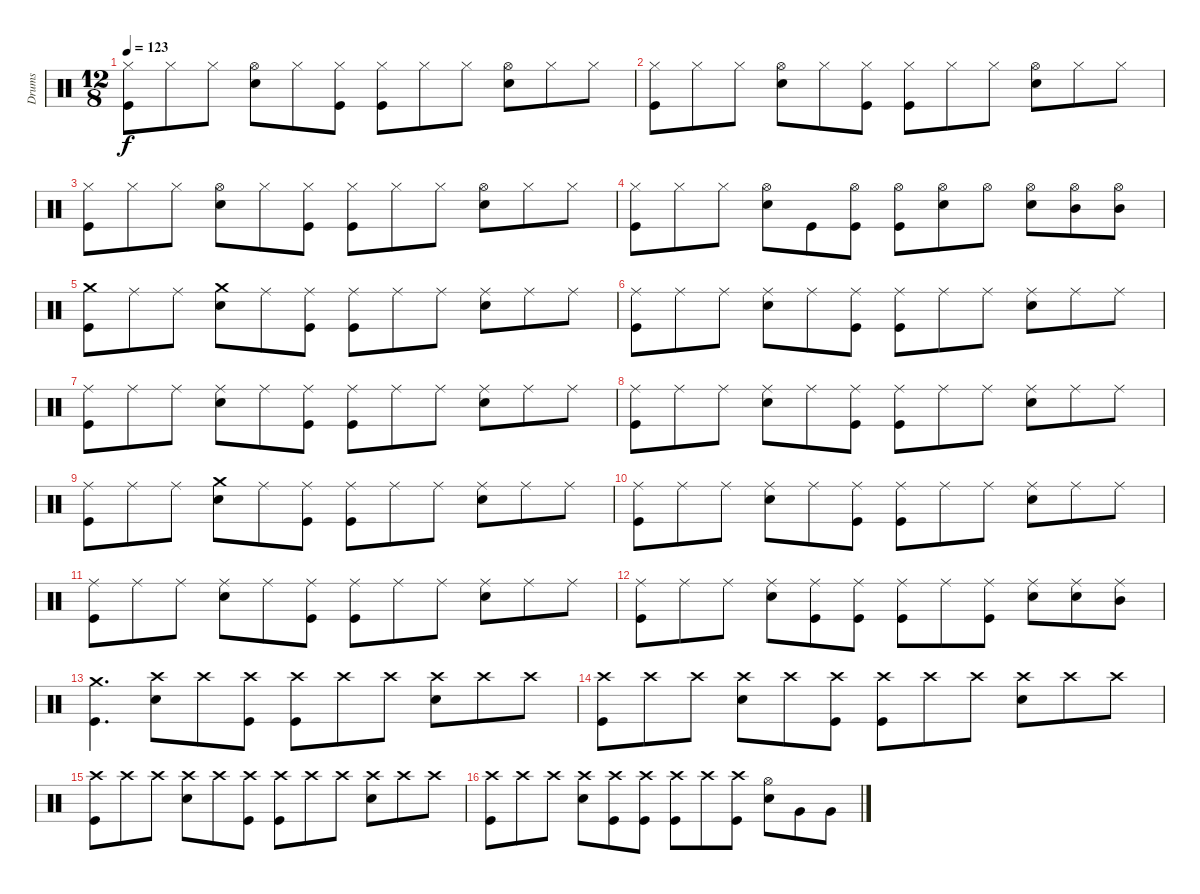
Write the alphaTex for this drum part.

\track ("Drums" "Drums") {instrument percussion}
\staff {score}
\articulation defaults
\ts (12 8)
\tempo 123
\clef neutral
\ks c
("Hi-Hat (closed)" "Kick (hit)").8{dy f} "Hi-Hat (closed)".8 "Hi-Hat (closed)".8 ("Hi-Hat (open)" "Snare (hit) 2").8 "Hi-Hat (closed)".8 ("Hi-Hat (closed)" "Kick (hit)").8 ("Hi-Hat (closed)" "Kick (hit)").8 "Hi-Hat (closed)".8 "Hi-Hat (closed)".8 ("Hi-Hat (open)" "Snare (hit) 2").8 "Hi-Hat (closed)".8 "Hi-Hat (closed)".8 |
("Hi-Hat (closed)" "Kick (hit)").8 "Hi-Hat (closed)".8 "Hi-Hat (closed)".8 ("Hi-Hat (open)" "Snare (hit) 2").8 "Hi-Hat (closed)".8 ("Hi-Hat (closed)" "Kick (hit)").8 ("Hi-Hat (closed)" "Kick (hit)").8 "Hi-Hat (closed)".8 "Hi-Hat (closed)".8 ("Hi-Hat (open)" "Snare (hit) 2").8 "Hi-Hat (closed)".8 "Hi-Hat (closed)".8 |
("Hi-Hat (closed)" "Kick (hit)").8 "Hi-Hat (closed)".8 "Hi-Hat (closed)".8 ("Hi-Hat (open)" "Snare (hit) 2").8 "Hi-Hat (closed)".8 ("Hi-Hat (closed)" "Kick (hit)").8 ("Hi-Hat (closed)" "Kick (hit)").8 "Hi-Hat (closed)".8 "Hi-Hat (closed)".8 ("Hi-Hat (open)" "Snare (hit) 2").8 "Hi-Hat (closed)".8 "Hi-Hat (closed)".8 |
("Hi-Hat (closed)" "Kick (hit)").8 "Hi-Hat (closed)".8 "Hi-Hat (closed)".8 ("Hi-Hat (open)" "Snare (hit) 2").8 "Kick (hit)".8 ("Hi-Hat (open)" "Kick (hit)").8 ("Hi-Hat (open)" "Kick (hit)").8 ("Hi-Hat (open)" "Snare (hit) 2").8 "Hi-Hat (open)".8 ("Hi-Hat (open)" "Snare (hit) 2").8 ("Hi-Hat (open)" "Mid Tom (hit)").8 ("Hi-Hat (open)" "Mid Tom (hit)").8 |
("Crash medium (hit)" "Kick (hit)").8 "Ride (middle)".8 "Ride (middle)".8 ("Crash medium (hit)" "Snare (hit) 2").8 "Ride (middle)".8 ("Ride (middle)" "Kick (hit)").8 ("Ride (middle)" "Kick (hit)").8 "Ride (middle)".8 "Ride (middle)".8 ("Ride (middle)" "Snare (hit) 2").8 "Ride (middle)".8 "Ride (middle)".8 |
("Ride (middle)" "Kick (hit)").8 "Ride (middle)".8 "Ride (middle)".8 ("Ride (middle)" "Snare (hit) 2").8 "Ride (middle)".8 ("Ride (middle)" "Kick (hit)").8 ("Ride (middle)" "Kick (hit)").8 "Ride (middle)".8 "Ride (middle)".8 ("Ride (middle)" "Snare (hit) 2").8 "Ride (middle)".8 "Ride (middle)".8 |
("Ride (middle)" "Kick (hit)").8 "Ride (middle)".8 "Ride (middle)".8 ("Ride (middle)" "Snare (hit) 2").8 "Ride (middle)".8 ("Ride (middle)" "Kick (hit)").8 ("Ride (middle)" "Kick (hit)").8 "Ride (middle)".8 "Ride (middle)".8 ("Ride (middle)" "Snare (hit) 2").8 "Ride (middle)".8 "Ride (middle)".8 |
("Ride (middle)" "Kick (hit)").8 "Ride (middle)".8 "Ride (middle)".8 ("Ride (middle)" "Snare (hit) 2").8 "Ride (middle)".8 ("Ride (middle)" "Kick (hit)").8 ("Ride (middle)" "Kick (hit)").8 "Ride (middle)".8 "Ride (middle)".8 ("Ride (middle)" "Snare (hit) 2").8 "Ride (middle)".8 "Ride (middle)".8 |
("Ride (middle)" "Kick (hit)").8 "Ride (middle)".8 "Ride (middle)".8 ("Crash medium (hit)" "Snare (hit) 2").8 "Ride (middle)".8 ("Ride (middle)" "Kick (hit)").8 ("Ride (middle)" "Kick (hit)").8 "Ride (middle)".8 "Ride (middle)".8 ("Ride (middle)" "Snare (hit) 2").8 "Ride (middle)".8 "Ride (middle)".8 |
("Ride (middle)" "Kick (hit)").8 "Ride (middle)".8 "Ride (middle)".8 ("Ride (middle)" "Snare (hit) 2").8 "Ride (middle)".8 ("Ride (middle)" "Kick (hit)").8 ("Ride (middle)" "Kick (hit)").8 "Ride (middle)".8 "Ride (middle)".8 ("Ride (middle)" "Snare (hit) 2").8 "Ride (middle)".8 "Ride (middle)".8 |
("Ride (middle)" "Kick (hit)").8 "Ride (middle)".8 "Ride (middle)".8 ("Ride (middle)" "Snare (hit) 2").8 "Ride (middle)".8 ("Ride (middle)" "Kick (hit)").8 ("Ride (middle)" "Kick (hit)").8 "Ride (middle)".8 "Ride (middle)".8 ("Ride (middle)" "Snare (hit) 2").8 "Ride (middle)".8 "Ride (middle)".8 |
("Ride (middle)" "Kick (hit)").8 "Ride (middle)".8 "Ride (middle)".8 ("Ride (middle)" "Snare (hit) 2").8 ("Ride (middle)" "Kick (hit)").8 ("Ride (middle)" "Kick (hit)").8 ("Ride (middle)" "Kick (hit)").8 "Ride (middle)".8 ("Ride (middle)" "Kick (hit)").8 ("Ride (middle)" "Snare (hit) 2").8 ("Ride (middle)" "Snare (hit) 2").8 ("Ride (middle)" "Mid Tom (hit)").8 |
("Crash medium (hit)" "Kick (hit)").4{d} ("Crash high (hit)" "Snare (hit) 2").8 "Crash high (hit)".8 ("Crash high (hit)" "Kick (hit)").8 ("Crash high (hit)" "Kick (hit)").8 "Crash high (hit)".8 "Crash high (hit)".8 ("Crash high (hit)" "Snare (hit) 2").8 "Crash high (hit)".8 "Crash high (hit)".8 |
("Crash high (hit)" "Kick (hit)").8 "Crash high (hit)".8 "Crash high (hit)".8 ("Crash high (hit)" "Snare (hit) 2").8 "Crash high (hit)".8 ("Crash high (hit)" "Kick (hit)").8 ("Crash high (hit)" "Kick (hit)").8 "Crash high (hit)".8 "Crash high (hit)".8 ("Crash high (hit)" "Snare (hit) 2").8 "Crash high (hit)".8 "Crash high (hit)".8 |
("Crash high (hit)" "Kick (hit)").8 "Crash high (hit)".8 "Crash high (hit)".8 ("Crash high (hit)" "Snare (hit) 2").8 "Crash high (hit)".8 ("Crash high (hit)" "Kick (hit)").8 ("Crash high (hit)" "Kick (hit)").8 "Crash high (hit)".8 "Crash high (hit)".8 ("Crash high (hit)" "Snare (hit) 2").8 "Crash high (hit)".8 "Crash high (hit)".8 |
("Crash high (hit)" "Kick (hit)").8 "Crash high (hit)".8 "Crash high (hit)".8 ("Crash high (hit)" "Snare (hit) 2").8 ("Crash high (hit)" "Kick (hit)").8 ("Crash high (hit)" "Kick (hit)").8 ("Crash high (hit)" "Kick (hit)").8 "Crash high (hit)".8 ("Crash high (hit)" "Kick (hit)").8 ("Hi-Hat (open)" "Snare (hit) 2").8 "Very Low Tom (hit)".8 "Very Low Tom (hit)".8
